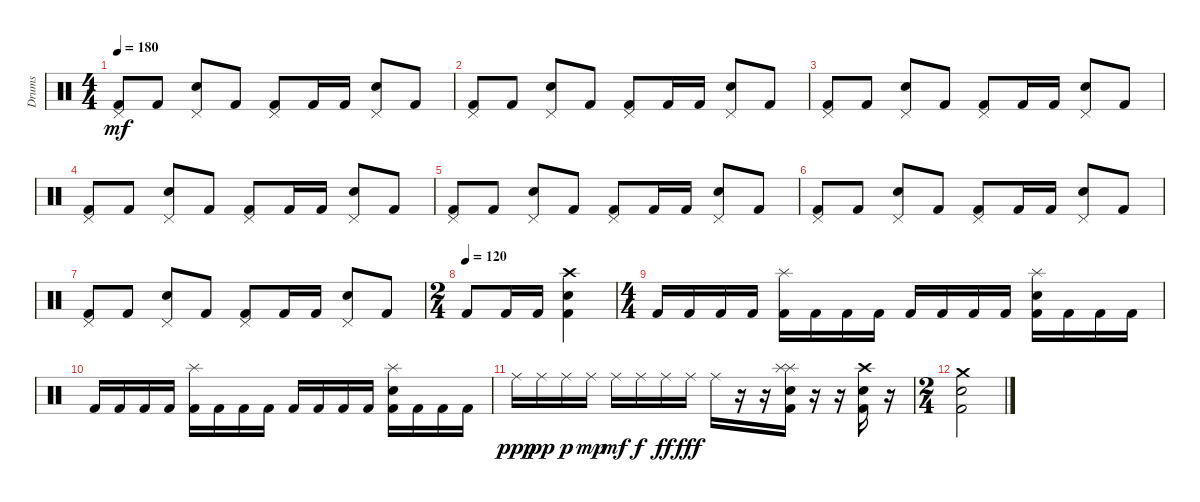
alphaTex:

\track ("Drums" "Drums") {instrument percussion}
\staff {score}
\articulation defaults
\ts (4 4)
\tempo 180
\clef neutral
\ks c
("Pedal Hi-Hat (hit)" "Kick (hit) 2").8{dy mf} "Kick (hit) 2".8 ("Pedal Hi-Hat (hit)" "Snare (hit) 2").8 "Kick (hit) 2".8 ("Pedal Hi-Hat (hit)" "Kick (hit) 2").8 "Kick (hit) 2".16 "Kick (hit) 2".16 ("Pedal Hi-Hat (hit)" "Snare (hit) 2").8 "Kick (hit) 2".8 |
("Pedal Hi-Hat (hit)" "Kick (hit) 2").8 "Kick (hit) 2".8 ("Pedal Hi-Hat (hit)" "Snare (hit) 2").8 "Kick (hit) 2".8 ("Pedal Hi-Hat (hit)" "Kick (hit) 2").8 "Kick (hit) 2".16 "Kick (hit) 2".16 ("Pedal Hi-Hat (hit)" "Snare (hit) 2").8 "Kick (hit) 2".8 |
("Pedal Hi-Hat (hit)" "Kick (hit) 2").8 "Kick (hit) 2".8 ("Pedal Hi-Hat (hit)" "Snare (hit) 2").8 "Kick (hit) 2".8 ("Pedal Hi-Hat (hit)" "Kick (hit) 2").8 "Kick (hit) 2".16 "Kick (hit) 2".16 ("Pedal Hi-Hat (hit)" "Snare (hit) 2").8 "Kick (hit) 2".8 |
("Pedal Hi-Hat (hit)" "Kick (hit) 2").8 "Kick (hit) 2".8 ("Pedal Hi-Hat (hit)" "Snare (hit) 2").8 "Kick (hit) 2".8 ("Pedal Hi-Hat (hit)" "Kick (hit) 2").8 "Kick (hit) 2".16 "Kick (hit) 2".16 ("Pedal Hi-Hat (hit)" "Snare (hit) 2").8 "Kick (hit) 2".8 |
("Pedal Hi-Hat (hit)" "Kick (hit) 2").8 "Kick (hit) 2".8 ("Pedal Hi-Hat (hit)" "Snare (hit) 2").8 "Kick (hit) 2".8 ("Pedal Hi-Hat (hit)" "Kick (hit) 2").8 "Kick (hit) 2".16 "Kick (hit) 2".16 ("Pedal Hi-Hat (hit)" "Snare (hit) 2").8 "Kick (hit) 2".8 |
("Pedal Hi-Hat (hit)" "Kick (hit) 2").8 "Kick (hit) 2".8 ("Pedal Hi-Hat (hit)" "Snare (hit) 2").8 "Kick (hit) 2".8 ("Pedal Hi-Hat (hit)" "Kick (hit) 2").8 "Kick (hit) 2".16 "Kick (hit) 2".16 ("Pedal Hi-Hat (hit)" "Snare (hit) 2").8 "Kick (hit) 2".8 |
("Pedal Hi-Hat (hit)" "Kick (hit) 2").8 "Kick (hit) 2".8 ("Pedal Hi-Hat (hit)" "Snare (hit) 2").8 "Kick (hit) 2".8 ("Pedal Hi-Hat (hit)" "Kick (hit) 2").8 "Kick (hit) 2".16 "Kick (hit) 2".16 ("Pedal Hi-Hat (hit)" "Snare (hit) 2").8 "Kick (hit) 2".8 |
\ts (2 4)
\tempo (120)
"Kick (hit) 2".8 "Kick (hit) 2".16 "Kick (hit) 2".16 ("Crash high (hit)" "Snare (hit) 2" "Kick (hit) 2").4 |
\ts (4 4)
"Kick (hit) 2".16 "Kick (hit) 2".16 "Kick (hit) 2".16 "Kick (hit) 2".16 ("Splash (hit)" "Kick (hit) 2").16 "Kick (hit) 2".16 "Kick (hit) 2".16 "Kick (hit) 2".16 "Kick (hit) 2".16 "Kick (hit) 2".16 "Kick (hit) 2".16 "Kick (hit) 2".16 ("Splash (hit)" "Snare (hit) 2" "Kick (hit) 2").16 "Kick (hit) 2".16 "Kick (hit) 2".16 "Kick (hit) 2".16 |
"Kick (hit) 2".16 "Kick (hit) 2".16 "Kick (hit) 2".16 "Kick (hit) 2".16 ("Splash (hit)" "Kick (hit) 2").16 "Kick (hit) 2".16 "Kick (hit) 2".16 "Kick (hit) 2".16 "Kick (hit) 2".16 "Kick (hit) 2".16 "Kick (hit) 2".16 "Kick (hit) 2".16 ("Splash (hit)" "Snare (hit) 2" "Kick (hit) 2").16 "Kick (hit) 2".16 "Kick (hit) 2".16 "Kick (hit) 2".16 |
"Ride (middle)".16{dy ppp} "Ride (middle)".16{dy pp} "Ride (middle)".16{dy p} "Ride (middle)".16{dy mp} "Ride (middle)".16{dy mf} "Ride (middle)".16{dy f} "Ride (middle)".16{dy ff} "Ride (middle)".16{dy fff} "Ride (middle)".16 r.16 r.16 ("Splash (hit)" "Splash (hit)" "Snare (hit) 2" "Kick (hit) 2").16 r.16 r.16 ("Crash high (hit)" "Snare (hit) 2" "Kick (hit) 2").16 r.16 |
\ts (2 4)
("Crash medium (hit)" "Snare (hit) 2" "Kick (hit) 2").2
